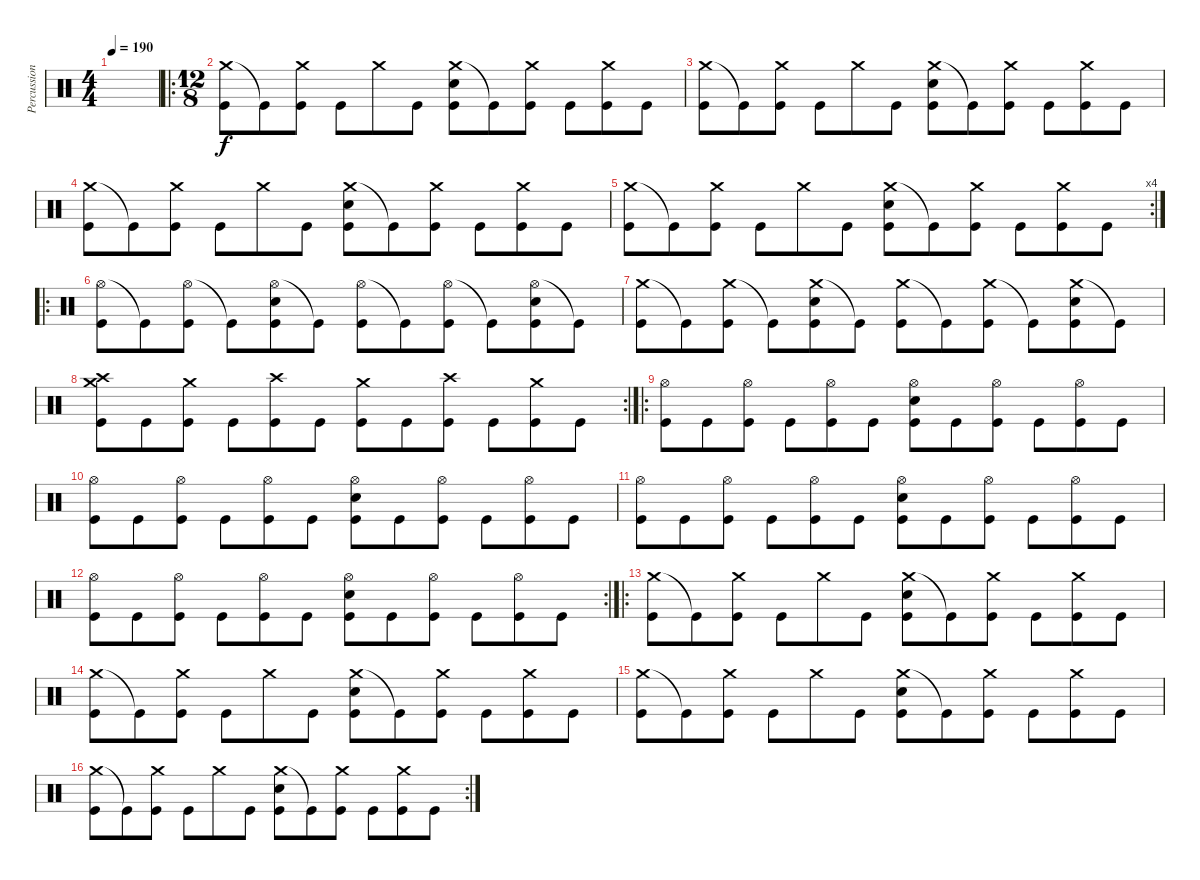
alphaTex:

\track ("Percussion" "Percussion") {instrument percussion}
\staff {score}
\articulation defaults
\ts (4 4)
\tempo 190
\clef neutral
\ks c
|
\ro
\ts (12 8)
("Crash medium (hit)" "Kick (hit)").8 "Kick (hit)"{t}.8 ("Crash medium (hit)" "Kick (hit)").8 "Kick (hit)".8 "Crash medium (hit)".8 "Kick (hit)".8 ("Crash medium (hit)" "Snare (hit) 2" "Kick (hit)").8 "Kick (hit)"{t}.8 ("Crash medium (hit)" "Kick (hit)").8 "Kick (hit)".8 ("Crash medium (hit)" "Kick (hit)").8 "Kick (hit)".8 |
("Crash medium (hit)" "Kick (hit)").8 "Kick (hit)"{t}.8 ("Crash medium (hit)" "Kick (hit)").8 "Kick (hit)".8 "Crash medium (hit)".8 "Kick (hit)".8 ("Crash medium (hit)" "Snare (hit) 2" "Kick (hit)").8 "Kick (hit)"{t}.8 ("Crash medium (hit)" "Kick (hit)").8 "Kick (hit)".8 ("Crash medium (hit)" "Kick (hit)").8 "Kick (hit)".8 |
("Crash medium (hit)" "Kick (hit)").8 "Kick (hit)"{t}.8 ("Crash medium (hit)" "Kick (hit)").8 "Kick (hit)".8 "Crash medium (hit)".8 "Kick (hit)".8 ("Crash medium (hit)" "Snare (hit) 2" "Kick (hit)").8 "Kick (hit)"{t}.8 ("Crash medium (hit)" "Kick (hit)").8 "Kick (hit)".8 ("Crash medium (hit)" "Kick (hit)").8 "Kick (hit)".8 |
\rc 4
("Crash medium (hit)" "Kick (hit)").8 "Kick (hit)"{t}.8 ("Crash medium (hit)" "Kick (hit)").8 "Kick (hit)".8 "Crash medium (hit)".8 "Kick (hit)".8 ("Crash medium (hit)" "Snare (hit) 2" "Kick (hit)").8 "Kick (hit)"{t}.8 ("Crash medium (hit)" "Kick (hit)").8 "Kick (hit)".8 ("Crash medium (hit)" "Kick (hit)").8 "Kick (hit)".8 |
\ro
("Hi-Hat (open)" "Kick (hit)").8 "Kick (hit)"{t}.8 ("Hi-Hat (open)" "Kick (hit)").8 "Kick (hit)"{t}.8 ("Hi-Hat (open)" "Snare (hit) 2" "Kick (hit)").8 "Kick (hit)"{t}.8 ("Hi-Hat (open)" "Kick (hit)").8 "Kick (hit)"{t}.8 ("Hi-Hat (open)" "Kick (hit)").8 "Kick (hit)"{t}.8 ("Hi-Hat (open)" "Snare (hit) 2" "Kick (hit)").8 "Kick (hit)"{t}.8 |
("Crash medium (hit)" "Kick (hit)").8 "Kick (hit)"{t}.8 ("Crash medium (hit)" "Kick (hit)").8 "Kick (hit)"{t}.8 ("Crash medium (hit)" "Snare (hit) 2" "Kick (hit)").8 "Kick (hit)"{t}.8 ("Crash medium (hit)" "Kick (hit)").8 "Kick (hit)"{t}.8 ("Crash medium (hit)" "Kick (hit)").8 "Kick (hit)"{t}.8 ("Crash medium (hit)" "Snare (hit) 2" "Kick (hit)").8 "Kick (hit)"{t}.8 |
\rc 2
("Crash medium (hit)" "Crash high (hit)" "Kick (hit)").8 "Kick (hit)".8 ("Crash medium (hit)" "Kick (hit)").8 "Kick (hit)".8 ("Crash high (hit)" "Kick (hit)").8 "Kick (hit)".8 ("Crash medium (hit)" "Kick (hit)").8 "Kick (hit)".8 ("Crash high (hit)" "Kick (hit)").8 "Kick (hit)".8 ("Crash medium (hit)" "Kick (hit)").8 "Kick (hit)".8 |
\ro
("Hi-Hat (open)" "Kick (hit)").8 "Kick (hit)".8 ("Hi-Hat (open)" "Kick (hit)").8 "Kick (hit)".8 ("Hi-Hat (open)" "Kick (hit)").8 "Kick (hit)".8 ("Hi-Hat (open)" "Snare (hit) 2" "Kick (hit)").8 "Kick (hit)".8 ("Hi-Hat (open)" "Kick (hit)").8 "Kick (hit)".8 ("Hi-Hat (open)" "Kick (hit)").8 "Kick (hit)".8 |
("Hi-Hat (open)" "Kick (hit)").8 "Kick (hit)".8 ("Hi-Hat (open)" "Kick (hit)").8 "Kick (hit)".8 ("Hi-Hat (open)" "Kick (hit)").8 "Kick (hit)".8 ("Hi-Hat (open)" "Snare (hit) 2" "Kick (hit)").8 "Kick (hit)".8 ("Hi-Hat (open)" "Kick (hit)").8 "Kick (hit)".8 ("Hi-Hat (open)" "Kick (hit)").8 "Kick (hit)".8 |
("Hi-Hat (open)" "Kick (hit)").8 "Kick (hit)".8 ("Hi-Hat (open)" "Kick (hit)").8 "Kick (hit)".8 ("Hi-Hat (open)" "Kick (hit)").8 "Kick (hit)".8 ("Hi-Hat (open)" "Snare (hit) 2" "Kick (hit)").8 "Kick (hit)".8 ("Hi-Hat (open)" "Kick (hit)").8 "Kick (hit)".8 ("Hi-Hat (open)" "Kick (hit)").8 "Kick (hit)".8 |
\rc 2
("Hi-Hat (open)" "Kick (hit)").8 "Kick (hit)".8 ("Hi-Hat (open)" "Kick (hit)").8 "Kick (hit)".8 ("Hi-Hat (open)" "Kick (hit)").8 "Kick (hit)".8 ("Hi-Hat (open)" "Snare (hit) 2" "Kick (hit)").8 "Kick (hit)".8 ("Hi-Hat (open)" "Kick (hit)").8 "Kick (hit)".8 ("Hi-Hat (open)" "Kick (hit)").8 "Kick (hit)".8 |
\ro
("Crash medium (hit)" "Kick (hit)").8 "Kick (hit)"{t}.8 ("Crash medium (hit)" "Kick (hit)").8 "Kick (hit)".8 "Crash medium (hit)".8 "Kick (hit)".8 ("Crash medium (hit)" "Snare (hit) 2" "Kick (hit)").8 "Kick (hit)"{t}.8 ("Crash medium (hit)" "Kick (hit)").8 "Kick (hit)".8 ("Crash medium (hit)" "Kick (hit)").8 "Kick (hit)".8 |
("Crash medium (hit)" "Kick (hit)").8 "Kick (hit)"{t}.8 ("Crash medium (hit)" "Kick (hit)").8 "Kick (hit)".8 "Crash medium (hit)".8 "Kick (hit)".8 ("Crash medium (hit)" "Snare (hit) 2" "Kick (hit)").8 "Kick (hit)"{t}.8 ("Crash medium (hit)" "Kick (hit)").8 "Kick (hit)".8 ("Crash medium (hit)" "Kick (hit)").8 "Kick (hit)".8 |
("Crash medium (hit)" "Kick (hit)").8 "Kick (hit)"{t}.8 ("Crash medium (hit)" "Kick (hit)").8 "Kick (hit)".8 "Crash medium (hit)".8 "Kick (hit)".8 ("Crash medium (hit)" "Snare (hit) 2" "Kick (hit)").8 "Kick (hit)"{t}.8 ("Crash medium (hit)" "Kick (hit)").8 "Kick (hit)".8 ("Crash medium (hit)" "Kick (hit)").8 "Kick (hit)".8 |
\rc 2
("Crash medium (hit)" "Kick (hit)").8 "Kick (hit)"{t}.8 ("Crash medium (hit)" "Kick (hit)").8 "Kick (hit)".8 "Crash medium (hit)".8 "Kick (hit)".8 ("Crash medium (hit)" "Snare (hit) 2" "Kick (hit)").8 "Kick (hit)"{t}.8 ("Crash medium (hit)" "Kick (hit)").8 "Kick (hit)".8 ("Crash medium (hit)" "Kick (hit)").8 "Kick (hit)".8
